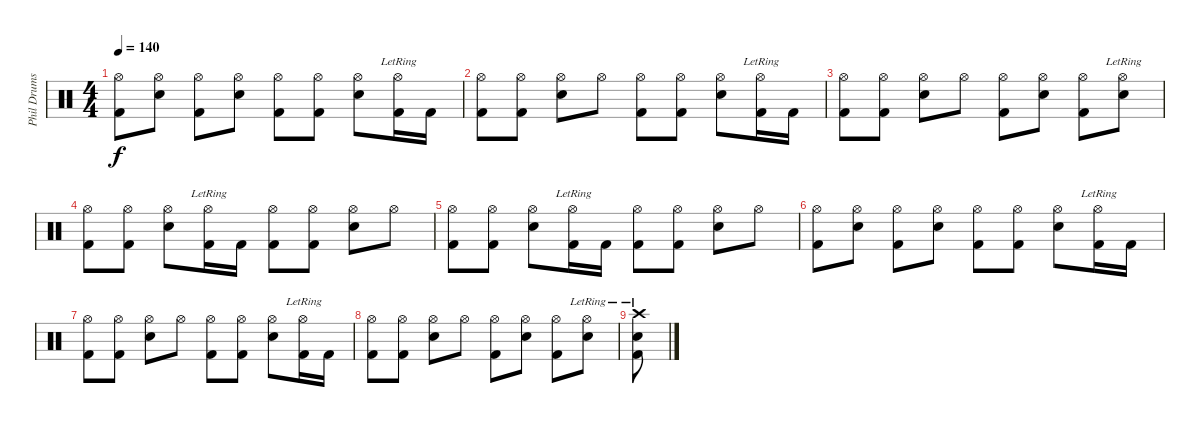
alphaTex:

\track ("Phil Drums" "Phil Drums") {instrument percussion}
\staff {score}
\articulation defaults
\ts (4 4)
\tempo 140
\clef neutral
\ks c
("Kick (hit) 2" "Hi-Hat (open)").8{dy f} ("Snare (hit) 2" "Hi-Hat (open)").8 ("Kick (hit) 2" "Hi-Hat (open)").8 ("Snare (hit) 2" "Hi-Hat (open)").8 ("Kick (hit) 2" "Hi-Hat (open)").8 ("Kick (hit) 2" "Hi-Hat (open)").8 ("Snare (hit) 2" "Hi-Hat (open)").8 ("Kick (hit) 2" "Hi-Hat (open)"{lr}).16 "Kick (hit) 2".16 |
("Kick (hit) 2" "Hi-Hat (open)").8 ("Kick (hit) 2" "Hi-Hat (open)").8 ("Snare (hit) 2" "Hi-Hat (open)").8 "Hi-Hat (open)".8 ("Kick (hit) 2" "Hi-Hat (open)").8 ("Kick (hit) 2" "Hi-Hat (open)").8 ("Snare (hit) 2" "Hi-Hat (open)").8 ("Kick (hit) 2" "Hi-Hat (open)"{lr}).16 "Kick (hit) 2".16 |
("Kick (hit) 2" "Hi-Hat (open)").8 ("Kick (hit) 2" "Hi-Hat (open)").8 ("Snare (hit) 2" "Hi-Hat (open)").8 "Hi-Hat (open)".8 ("Kick (hit) 2" "Hi-Hat (open)").8 ("Snare (hit) 2" "Hi-Hat (open)").8 ("Kick (hit) 2" "Hi-Hat (open)").8 ("Snare (hit) 2" "Hi-Hat (open)"{lr}).8 |
("Kick (hit) 2" "Hi-Hat (open)").8 ("Kick (hit) 2" "Hi-Hat (open)").8 ("Snare (hit) 2" "Hi-Hat (open)").8 ("Kick (hit) 2" "Hi-Hat (open)"{lr}).16 "Kick (hit) 2".16 ("Kick (hit) 2" "Hi-Hat (open)").8 ("Kick (hit) 2" "Hi-Hat (open)").8 ("Snare (hit) 2" "Hi-Hat (open)").8 "Hi-Hat (open)".8 |
("Kick (hit) 2" "Hi-Hat (open)").8 ("Kick (hit) 2" "Hi-Hat (open)").8 ("Snare (hit) 2" "Hi-Hat (open)").8 ("Kick (hit) 2" "Hi-Hat (open)"{lr}).16 "Kick (hit) 2".16 ("Kick (hit) 2" "Hi-Hat (open)").8 ("Kick (hit) 2" "Hi-Hat (open)").8 ("Snare (hit) 2" "Hi-Hat (open)").8 "Hi-Hat (open)".8 |
("Kick (hit) 2" "Hi-Hat (open)").8 ("Snare (hit) 2" "Hi-Hat (open)").8 ("Kick (hit) 2" "Hi-Hat (open)").8 ("Snare (hit) 2" "Hi-Hat (open)").8 ("Kick (hit) 2" "Hi-Hat (open)").8 ("Kick (hit) 2" "Hi-Hat (open)").8 ("Snare (hit) 2" "Hi-Hat (open)").8 ("Kick (hit) 2" "Hi-Hat (open)"{lr}).16 "Kick (hit) 2".16 |
("Kick (hit) 2" "Hi-Hat (open)").8 ("Kick (hit) 2" "Hi-Hat (open)").8 ("Snare (hit) 2" "Hi-Hat (open)").8 "Hi-Hat (open)".8 ("Kick (hit) 2" "Hi-Hat (open)").8 ("Kick (hit) 2" "Hi-Hat (open)").8 ("Snare (hit) 2" "Hi-Hat (open)").8 ("Kick (hit) 2" "Hi-Hat (open)"{lr}).16 "Kick (hit) 2".16 |
("Kick (hit) 2" "Hi-Hat (open)").8 ("Kick (hit) 2" "Hi-Hat (open)").8 ("Snare (hit) 2" "Hi-Hat (open)").8 "Hi-Hat (open)".8 ("Kick (hit) 2" "Hi-Hat (open)").8 ("Snare (hit) 2" "Hi-Hat (open)").8 ("Kick (hit) 2" "Hi-Hat (open)").8 ("Snare (hit) 2" "Hi-Hat (open)"{lr}).8 |
("Kick (hit) 2" "Snare (hit) 2" "Crash high (hit)"{lr}).8
